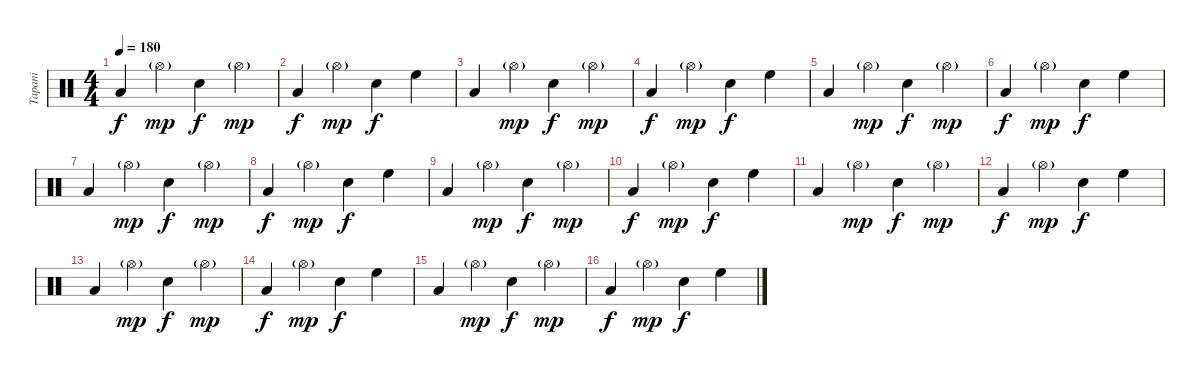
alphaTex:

\track ("Tapani" "Tapani") {instrument percussion}
\staff {score}
\articulation defaults
\ts (4 4)
\tempo 180
\clef neutral
\ks c "Low Tom (hit)".4{dy f} "Hi-Hat (open)"{g}.4{dy mp} "Electric Snare (hit)".4{dy f} "Hi-Hat (open)"{g}.4{dy mp}
|
"Low Tom (hit)".4{dy f} "Hi-Hat (open)"{g}.4{dy mp} "Electric Snare (hit)".4{dy f} "High Floor Tom (hit)".4 |
"Low Tom (hit)".4 "Hi-Hat (open)"{g}.4{dy mp} "Electric Snare (hit)".4{dy f} "Hi-Hat (open)"{g}.4{dy mp} |
"Low Tom (hit)".4{dy f} "Hi-Hat (open)"{g}.4{dy mp} "Electric Snare (hit)".4{dy f} "High Floor Tom (hit)".4 |
"Low Tom (hit)".4 "Hi-Hat (open)"{g}.4{dy mp} "Electric Snare (hit)".4{dy f} "Hi-Hat (open)"{g}.4{dy mp} |
"Low Tom (hit)".4{dy f} "Hi-Hat (open)"{g}.4{dy mp} "Electric Snare (hit)".4{dy f} "High Floor Tom (hit)".4 |
"Low Tom (hit)".4 "Hi-Hat (open)"{g}.4{dy mp} "Electric Snare (hit)".4{dy f} "Hi-Hat (open)"{g}.4{dy mp} |
"Low Tom (hit)".4{dy f} "Hi-Hat (open)"{g}.4{dy mp} "Electric Snare (hit)".4{dy f} "High Floor Tom (hit)".4 |
"Low Tom (hit)".4 "Hi-Hat (open)"{g}.4{dy mp} "Electric Snare (hit)".4{dy f} "Hi-Hat (open)"{g}.4{dy mp} |
"Low Tom (hit)".4{dy f} "Hi-Hat (open)"{g}.4{dy mp} "Electric Snare (hit)".4{dy f} "High Floor Tom (hit)".4 |
"Low Tom (hit)".4 "Hi-Hat (open)"{g}.4{dy mp} "Electric Snare (hit)".4{dy f} "Hi-Hat (open)"{g}.4{dy mp} |
"Low Tom (hit)".4{dy f} "Hi-Hat (open)"{g}.4{dy mp} "Electric Snare (hit)".4{dy f} "High Floor Tom (hit)".4 |
"Low Tom (hit)".4 "Hi-Hat (open)"{g}.4{dy mp} "Electric Snare (hit)".4{dy f} "Hi-Hat (open)"{g}.4{dy mp} |
"Low Tom (hit)".4{dy f} "Hi-Hat (open)"{g}.4{dy mp} "Electric Snare (hit)".4{dy f} "High Floor Tom (hit)".4 |
"Low Tom (hit)".4 "Hi-Hat (open)"{g}.4{dy mp} "Electric Snare (hit)".4{dy f} "Hi-Hat (open)"{g}.4{dy mp} |
"Low Tom (hit)".4{dy f} "Hi-Hat (open)"{g}.4{dy mp} "Electric Snare (hit)".4{dy f} "High Floor Tom (hit)".4
